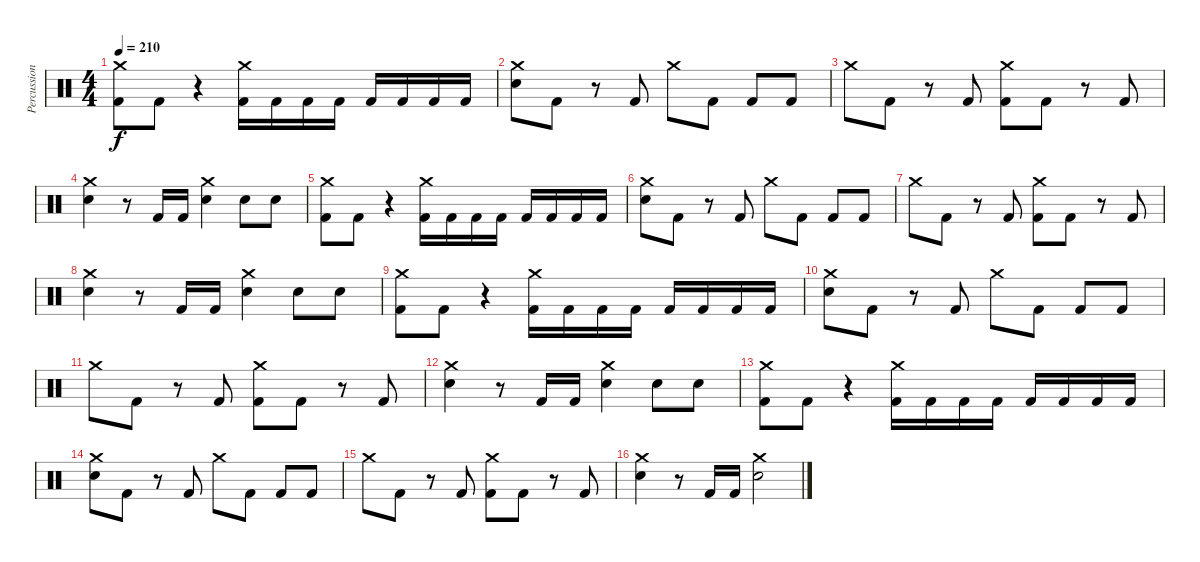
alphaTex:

\track ("Percussion" "Percussion") {instrument percussion}
\staff {score}
\articulation defaults
\ts (4 4)
\tempo 210
\clef neutral
\ks c
("Crash medium (hit)" "Kick (hit) 2").8{dy f} "Kick (hit) 2".8 r.4 ("Crash medium (hit)" "Kick (hit) 2").16 "Kick (hit) 2".16 "Kick (hit) 2".16 "Kick (hit) 2".16 "Kick (hit) 2".16 "Kick (hit) 2".16 "Kick (hit) 2".16 "Kick (hit) 2".16 |
("Crash medium (hit)" "Electric Snare (hit)").8 "Kick (hit) 2".8 r.8 "Kick (hit) 2".8 "Crash medium (hit)".8 "Kick (hit) 2".8 "Kick (hit) 2".8 "Kick (hit) 2".8 |
"Crash medium (hit)".8 "Kick (hit) 2".8 r.8 "Kick (hit) 2".8 ("Crash medium (hit)" "Kick (hit) 2").8 "Kick (hit) 2".8 r.8 "Kick (hit) 2".8 |
("Crash medium (hit)" "Electric Snare (hit)").4 r.8 "Kick (hit) 2".16 "Kick (hit) 2".16 ("Crash medium (hit)" "Electric Snare (hit)").4 "Electric Snare (hit)".8 "Electric Snare (hit)".8 |
("Crash medium (hit)" "Kick (hit) 2").8 "Kick (hit) 2".8 r.4 ("Crash medium (hit)" "Kick (hit) 2").16 "Kick (hit) 2".16 "Kick (hit) 2".16 "Kick (hit) 2".16 "Kick (hit) 2".16 "Kick (hit) 2".16 "Kick (hit) 2".16 "Kick (hit) 2".16 |
("Crash medium (hit)" "Electric Snare (hit)").8 "Kick (hit) 2".8 r.8 "Kick (hit) 2".8 "Crash medium (hit)".8 "Kick (hit) 2".8 "Kick (hit) 2".8 "Kick (hit) 2".8 |
"Crash medium (hit)".8 "Kick (hit) 2".8 r.8 "Kick (hit) 2".8 ("Crash medium (hit)" "Kick (hit) 2").8 "Kick (hit) 2".8 r.8 "Kick (hit) 2".8 |
("Crash medium (hit)" "Electric Snare (hit)").4 r.8 "Kick (hit) 2".16 "Kick (hit) 2".16 ("Crash medium (hit)" "Electric Snare (hit)").4 "Electric Snare (hit)".8 "Electric Snare (hit)".8 |
("Crash medium (hit)" "Kick (hit) 2").8 "Kick (hit) 2".8 r.4 ("Crash medium (hit)" "Kick (hit) 2").16 "Kick (hit) 2".16 "Kick (hit) 2".16 "Kick (hit) 2".16 "Kick (hit) 2".16 "Kick (hit) 2".16 "Kick (hit) 2".16 "Kick (hit) 2".16 |
("Crash medium (hit)" "Electric Snare (hit)").8 "Kick (hit) 2".8 r.8 "Kick (hit) 2".8 "Crash medium (hit)".8 "Kick (hit) 2".8 "Kick (hit) 2".8 "Kick (hit) 2".8 |
"Crash medium (hit)".8 "Kick (hit) 2".8 r.8 "Kick (hit) 2".8 ("Crash medium (hit)" "Kick (hit) 2").8 "Kick (hit) 2".8 r.8 "Kick (hit) 2".8 |
("Crash medium (hit)" "Electric Snare (hit)").4 r.8 "Kick (hit) 2".16 "Kick (hit) 2".16 ("Crash medium (hit)" "Electric Snare (hit)").4 "Electric Snare (hit)".8 "Electric Snare (hit)".8 |
("Crash medium (hit)" "Kick (hit) 2").8 "Kick (hit) 2".8 r.4 ("Crash medium (hit)" "Kick (hit) 2").16 "Kick (hit) 2".16 "Kick (hit) 2".16 "Kick (hit) 2".16 "Kick (hit) 2".16 "Kick (hit) 2".16 "Kick (hit) 2".16 "Kick (hit) 2".16 |
("Crash medium (hit)" "Electric Snare (hit)").8 "Kick (hit) 2".8 r.8 "Kick (hit) 2".8 "Crash medium (hit)".8 "Kick (hit) 2".8 "Kick (hit) 2".8 "Kick (hit) 2".8 |
"Crash medium (hit)".8 "Kick (hit) 2".8 r.8 "Kick (hit) 2".8 ("Crash medium (hit)" "Kick (hit) 2").8 "Kick (hit) 2".8 r.8 "Kick (hit) 2".8 |
("Crash medium (hit)" "Electric Snare (hit)").4 r.8 "Kick (hit) 2".16 "Kick (hit) 2".16 ("Crash medium (hit)" "Electric Snare (hit)").2
